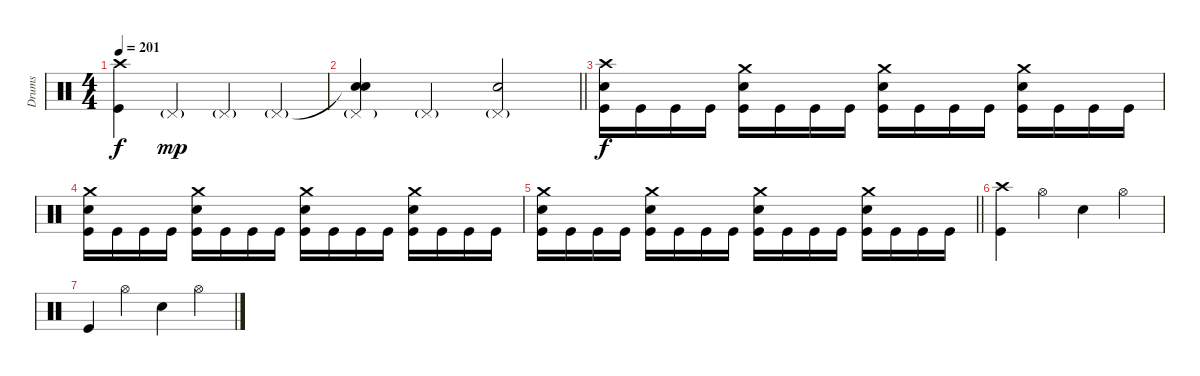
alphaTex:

\track ("Drums" "Drums") {instrument percussion}
\staff
\articulation defaults
\ts (4 4)
\tempo 201
\clef neutral
\ks c
("Crash high (hit)" "Kick (hit)").4{dy f} "Pedal Hi-Hat (hit)"{g}.4{dy mp} "Pedal Hi-Hat (hit)"{g}.4 "Pedal Hi-Hat (hit)"{g}.4 |
\barLineRight lightlight
("Snare (hit)"{t} "Pedal Hi-Hat (hit)"{g} "Snare (hit)"{t}).4 "Pedal Hi-Hat (hit)"{g}.4 ("Pedal Hi-Hat (hit)"{g} "Electric Snare (hit)").2 |
("Crash high (hit)" "Electric Snare (hit)" "Kick (hit)").16{dy f} "Kick (hit)".16 "Kick (hit)".16 "Kick (hit)".16 ("Crash medium (hit)" "Electric Snare (hit)" "Kick (hit)").16 "Kick (hit)".16 "Kick (hit)".16 "Kick (hit)".16 ("Crash medium (hit)" "Electric Snare (hit)" "Kick (hit)").16 "Kick (hit)".16 "Kick (hit)".16 "Kick (hit)".16 ("Crash medium (hit)" "Electric Snare (hit)" "Kick (hit)").16 "Kick (hit)".16 "Kick (hit)".16 "Kick (hit)".16 |
("Crash medium (hit)" "Electric Snare (hit)" "Kick (hit)").16 "Kick (hit)".16 "Kick (hit)".16 "Kick (hit)".16 ("Crash medium (hit)" "Electric Snare (hit)" "Kick (hit)").16 "Kick (hit)".16 "Kick (hit)".16 "Kick (hit)".16 ("Crash medium (hit)" "Electric Snare (hit)" "Kick (hit)").16 "Kick (hit)".16 "Kick (hit)".16 "Kick (hit)".16 ("Crash medium (hit)" "Electric Snare (hit)" "Kick (hit)").16 "Kick (hit)".16 "Kick (hit)".16 "Kick (hit)".16 |
\barLineRight lightlight
("Crash medium (hit)" "Electric Snare (hit)" "Kick (hit)").16 "Kick (hit)".16 "Kick (hit)".16 "Kick (hit)".16 ("Crash medium (hit)" "Electric Snare (hit)" "Kick (hit)").16 "Kick (hit)".16 "Kick (hit)".16 "Kick (hit)".16 ("Crash medium (hit)" "Electric Snare (hit)" "Kick (hit)").16 "Kick (hit)".16 "Kick (hit)".16 "Kick (hit)".16 ("Crash medium (hit)" "Electric Snare (hit)" "Kick (hit)").16 "Kick (hit)".16 "Kick (hit)".16 "Kick (hit)".16 |
("Crash high (hit)" "Kick (hit)").4 "Hi-Hat (open)".4 "Electric Snare (hit)".4 "Hi-Hat (open)".4 |
"Kick (hit)".4 "Hi-Hat (open)".4 "Electric Snare (hit)".4 "Hi-Hat (open)".4
